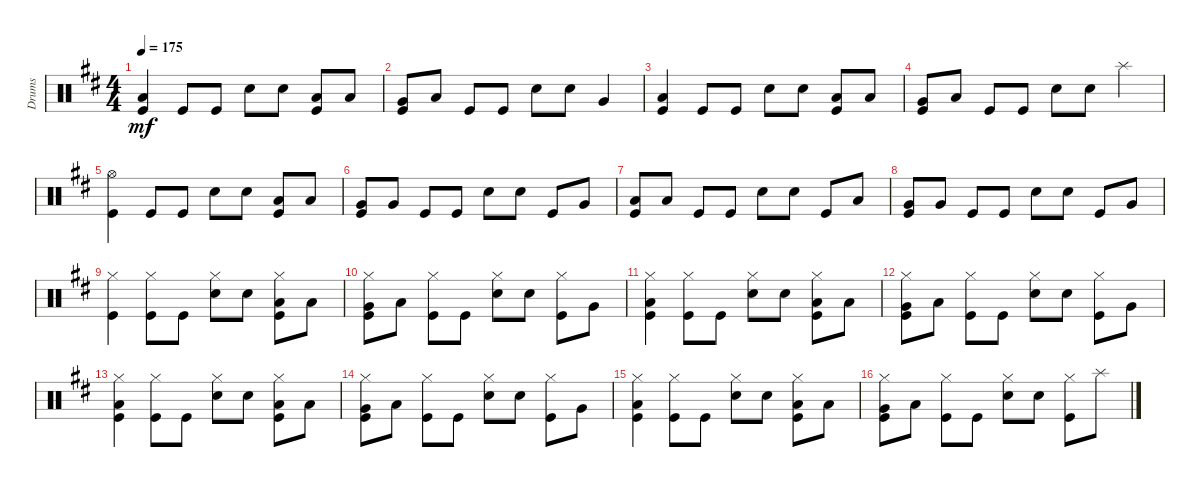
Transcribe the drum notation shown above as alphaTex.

\track ("Drums" "Drums") {instrument percussion}
\staff {score}
\articulation defaults
\ts (4 4)
\tempo 175
\clef neutral
\ks d
("Kick (hit)" "Low Floor Tom (hit)").4{dy mf} "Kick (hit)".8 "Kick (hit)".8 "Snare (hit) 2".8 "Snare (hit) 2".8 ("Kick (hit)" "Low Floor Tom (hit)").8 "Low Floor Tom (hit)".8 |
("Kick (hit)" "Very Low Tom (hit)").8 "Low Floor Tom (hit)".8 "Kick (hit)".8 "Kick (hit)".8 "Snare (hit) 2".8 "Snare (hit) 2".8 "Very Low Tom (hit)".4 |
("Kick (hit)" "Low Floor Tom (hit)").4 "Kick (hit)".8 "Kick (hit)".8 "Snare (hit) 2".8 "Snare (hit) 2".8 ("Kick (hit)" "Low Floor Tom (hit)").8 "Low Floor Tom (hit)".8 |
("Kick (hit)" "Very Low Tom (hit)").8 "Low Floor Tom (hit)".8 "Kick (hit)".8 "Kick (hit)".8 "Snare (hit) 2".8 "Snare (hit) 2".8 "Splash (hit)".4 |
("Kick (hit)" "Hi-Hat (open)").4 "Kick (hit)".8 "Kick (hit)".8 "Snare (hit) 2".8 "Snare (hit) 2".8 ("Kick (hit)" "Low Floor Tom (hit)").8 "Low Floor Tom (hit)".8 |
("Kick (hit)" "Very Low Tom (hit)").8 "Very Low Tom (hit)".8 "Kick (hit)".8 "Kick (hit)".8 "Snare (hit) 2".8 "Snare (hit) 2".8 "Kick (hit)".8 "Very Low Tom (hit)".8 |
("Kick (hit)" "Low Floor Tom (hit)").8 "Low Floor Tom (hit)".8 "Kick (hit)".8 "Kick (hit)".8 "Snare (hit) 2".8 "Snare (hit) 2".8 "Kick (hit)".8 "Low Floor Tom (hit)".8 |
("Kick (hit)" "Very Low Tom (hit)").8 "Very Low Tom (hit)".8 "Kick (hit)".8 "Kick (hit)".8 "Snare (hit) 2".8 "Snare (hit) 2".8 "Kick (hit)".8 "Very Low Tom (hit)".8 |
("Kick (hit)" "Hi-Hat (closed)").4 ("Kick (hit)" "Hi-Hat (closed)").8 "Kick (hit)".8 ("Snare (hit) 2" "Hi-Hat (closed)").8 "Snare (hit) 2".8 ("Hi-Hat (closed)" "Kick (hit)" "Low Floor Tom (hit)").8 "Low Floor Tom (hit)".8 |
("Hi-Hat (closed)" "Kick (hit)" "Very Low Tom (hit)").8 "Low Floor Tom (hit)".8 ("Kick (hit)" "Hi-Hat (closed)").8 "Kick (hit)".8 ("Hi-Hat (closed)" "Snare (hit) 2").8 "Snare (hit) 2".8 ("Hi-Hat (closed)" "Kick (hit)").8 "Very Low Tom (hit)".8 |
("Kick (hit)" "Hi-Hat (closed)" "Low Floor Tom (hit)").4 ("Kick (hit)" "Hi-Hat (closed)").8 "Kick (hit)".8 ("Snare (hit) 2" "Hi-Hat (closed)").8 "Snare (hit) 2".8 ("Hi-Hat (closed)" "Kick (hit)" "Low Floor Tom (hit)").8 "Low Floor Tom (hit)".8 |
("Hi-Hat (closed)" "Kick (hit)" "Very Low Tom (hit)").8 "Low Floor Tom (hit)".8 ("Kick (hit)" "Hi-Hat (closed)").8 "Kick (hit)".8 ("Hi-Hat (closed)" "Snare (hit) 2").8 "Snare (hit) 2".8 ("Hi-Hat (closed)" "Kick (hit)").8 "Very Low Tom (hit)".8 |
("Kick (hit)" "Hi-Hat (closed)" "Low Floor Tom (hit)").4 ("Kick (hit)" "Hi-Hat (closed)").8 "Kick (hit)".8 ("Snare (hit) 2" "Hi-Hat (closed)").8 "Snare (hit) 2".8 ("Hi-Hat (closed)" "Kick (hit)" "Low Floor Tom (hit)").8 "Low Floor Tom (hit)".8 |
("Hi-Hat (closed)" "Kick (hit)" "Very Low Tom (hit)").8 "Low Floor Tom (hit)".8 ("Kick (hit)" "Hi-Hat (closed)").8 "Kick (hit)".8 ("Hi-Hat (closed)" "Snare (hit) 2").8 "Snare (hit) 2".8 ("Hi-Hat (closed)" "Kick (hit)").8 "Very Low Tom (hit)".8 |
("Kick (hit)" "Hi-Hat (closed)" "Low Floor Tom (hit)").4 ("Kick (hit)" "Hi-Hat (closed)").8 "Kick (hit)".8 ("Snare (hit) 2" "Hi-Hat (closed)").8 "Snare (hit) 2".8 ("Hi-Hat (closed)" "Kick (hit)" "Low Floor Tom (hit)").8 "Low Floor Tom (hit)".8 |
("Hi-Hat (closed)" "Kick (hit)" "Very Low Tom (hit)").8 "Low Floor Tom (hit)".8 ("Kick (hit)" "Hi-Hat (closed)").8 "Kick (hit)".8 ("Hi-Hat (closed)" "Snare (hit) 2").8 "Snare (hit) 2".8 ("Hi-Hat (closed)" "Kick (hit)").8 "Splash (hit)".8
